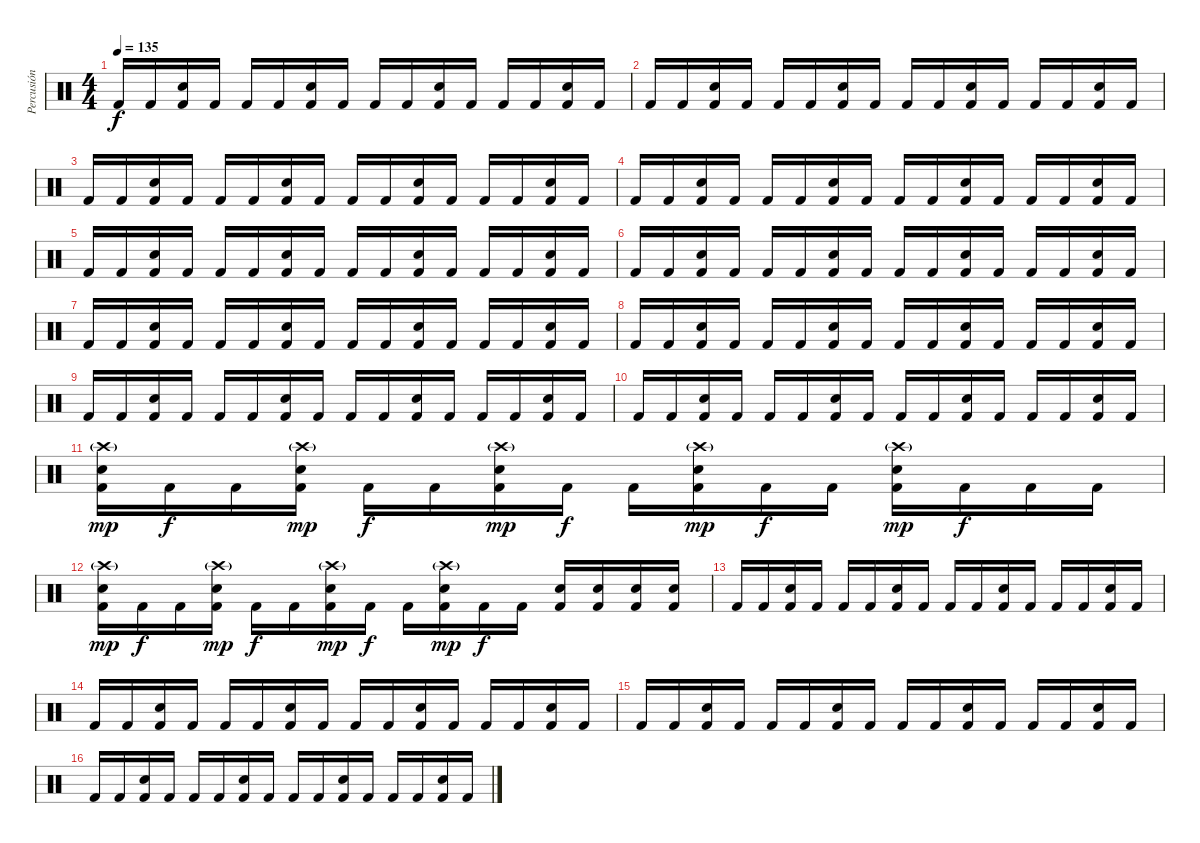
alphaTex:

\track ("Percusión" "Percusión") {instrument percussion}
\staff {score}
\articulation defaults
\ts (4 4)
\tempo 135
\clef neutral
\ks c "Kick (hit) 2".16{dy f} "Kick (hit) 2".16
("Snare (hit) 2" "Kick (hit) 2").16 "Kick (hit) 2".16 "Kick (hit) 2".16 "Kick (hit) 2".16 ("Snare (hit) 2" "Kick (hit) 2").16 "Kick (hit) 2".16 "Kick (hit) 2".16 "Kick (hit) 2".16 ("Snare (hit) 2" "Kick (hit) 2").16 "Kick (hit) 2".16 "Kick (hit) 2".16 "Kick (hit) 2".16 ("Snare (hit) 2" "Kick (hit) 2").16 "Kick (hit) 2".16 |
"Kick (hit) 2".16 "Kick (hit) 2".16 ("Snare (hit) 2" "Kick (hit) 2").16 "Kick (hit) 2".16 "Kick (hit) 2".16 "Kick (hit) 2".16 ("Snare (hit) 2" "Kick (hit) 2").16 "Kick (hit) 2".16 "Kick (hit) 2".16 "Kick (hit) 2".16 ("Snare (hit) 2" "Kick (hit) 2").16 "Kick (hit) 2".16 "Kick (hit) 2".16 "Kick (hit) 2".16 ("Snare (hit) 2" "Kick (hit) 2").16 "Kick (hit) 2".16 |
"Kick (hit) 2".16 "Kick (hit) 2".16 ("Snare (hit) 2" "Kick (hit) 2").16 "Kick (hit) 2".16 "Kick (hit) 2".16 "Kick (hit) 2".16 ("Snare (hit) 2" "Kick (hit) 2").16 "Kick (hit) 2".16 "Kick (hit) 2".16 "Kick (hit) 2".16 ("Snare (hit) 2" "Kick (hit) 2").16 "Kick (hit) 2".16 "Kick (hit) 2".16 "Kick (hit) 2".16 ("Snare (hit) 2" "Kick (hit) 2").16 "Kick (hit) 2".16 |
"Kick (hit) 2".16 "Kick (hit) 2".16 ("Snare (hit) 2" "Kick (hit) 2").16 "Kick (hit) 2".16 "Kick (hit) 2".16 "Kick (hit) 2".16 ("Snare (hit) 2" "Kick (hit) 2").16 "Kick (hit) 2".16 "Kick (hit) 2".16 "Kick (hit) 2".16 ("Snare (hit) 2" "Kick (hit) 2").16 "Kick (hit) 2".16 "Kick (hit) 2".16 "Kick (hit) 2".16 ("Snare (hit) 2" "Kick (hit) 2").16 "Kick (hit) 2".16 |
"Kick (hit) 2".16 "Kick (hit) 2".16 ("Snare (hit) 2" "Kick (hit) 2").16 "Kick (hit) 2".16 "Kick (hit) 2".16 "Kick (hit) 2".16 ("Snare (hit) 2" "Kick (hit) 2").16 "Kick (hit) 2".16 "Kick (hit) 2".16 "Kick (hit) 2".16 ("Snare (hit) 2" "Kick (hit) 2").16 "Kick (hit) 2".16 "Kick (hit) 2".16 "Kick (hit) 2".16 ("Snare (hit) 2" "Kick (hit) 2").16 "Kick (hit) 2".16 |
"Kick (hit) 2".16 "Kick (hit) 2".16 ("Snare (hit) 2" "Kick (hit) 2").16 "Kick (hit) 2".16 "Kick (hit) 2".16 "Kick (hit) 2".16 ("Snare (hit) 2" "Kick (hit) 2").16 "Kick (hit) 2".16 "Kick (hit) 2".16 "Kick (hit) 2".16 ("Snare (hit) 2" "Kick (hit) 2").16 "Kick (hit) 2".16 "Kick (hit) 2".16 "Kick (hit) 2".16 ("Snare (hit) 2" "Kick (hit) 2").16 "Kick (hit) 2".16 |
"Kick (hit) 2".16 "Kick (hit) 2".16 ("Snare (hit) 2" "Kick (hit) 2").16 "Kick (hit) 2".16 "Kick (hit) 2".16 "Kick (hit) 2".16 ("Snare (hit) 2" "Kick (hit) 2").16 "Kick (hit) 2".16 "Kick (hit) 2".16 "Kick (hit) 2".16 ("Snare (hit) 2" "Kick (hit) 2").16 "Kick (hit) 2".16 "Kick (hit) 2".16 "Kick (hit) 2".16 ("Snare (hit) 2" "Kick (hit) 2").16 "Kick (hit) 2".16 |
"Kick (hit) 2".16 "Kick (hit) 2".16 ("Snare (hit) 2" "Kick (hit) 2").16 "Kick (hit) 2".16 "Kick (hit) 2".16 "Kick (hit) 2".16 ("Snare (hit) 2" "Kick (hit) 2").16 "Kick (hit) 2".16 "Kick (hit) 2".16 "Kick (hit) 2".16 ("Snare (hit) 2" "Kick (hit) 2").16 "Kick (hit) 2".16 "Kick (hit) 2".16 "Kick (hit) 2".16 ("Snare (hit) 2" "Kick (hit) 2").16 "Kick (hit) 2".16 |
"Kick (hit) 2".16 "Kick (hit) 2".16 ("Snare (hit) 2" "Kick (hit) 2").16 "Kick (hit) 2".16 "Kick (hit) 2".16 "Kick (hit) 2".16 ("Snare (hit) 2" "Kick (hit) 2").16 "Kick (hit) 2".16 "Kick (hit) 2".16 "Kick (hit) 2".16 ("Snare (hit) 2" "Kick (hit) 2").16 "Kick (hit) 2".16 "Kick (hit) 2".16 "Kick (hit) 2".16 ("Snare (hit) 2" "Kick (hit) 2").16 "Kick (hit) 2".16 |
"Kick (hit) 2".16 "Kick (hit) 2".16 ("Snare (hit) 2" "Kick (hit) 2").16 "Kick (hit) 2".16 "Kick (hit) 2".16 "Kick (hit) 2".16 ("Snare (hit) 2" "Kick (hit) 2").16 "Kick (hit) 2".16 "Kick (hit) 2".16 "Kick (hit) 2".16 ("Snare (hit) 2" "Kick (hit) 2").16 "Kick (hit) 2".16 "Kick (hit) 2".16 "Kick (hit) 2".16 ("Snare (hit) 2" "Kick (hit) 2").16 "Kick (hit) 2".16 |
("Crash high (hit)"{g} "Snare (hit) 2" "Kick (hit) 2").16{dy mp} "Kick (hit) 2".16{dy f} "Kick (hit) 2".16 ("Crash high (hit)"{g} "Snare (hit) 2" "Kick (hit) 2").16{dy mp} "Kick (hit) 2".16{dy f} "Kick (hit) 2".16 ("Crash high (hit)"{g} "Snare (hit) 2" "Kick (hit) 2").16{dy mp} "Kick (hit) 2".16{dy f} "Kick (hit) 2".16 ("Crash high (hit)"{g} "Snare (hit) 2" "Kick (hit) 2").16{dy mp} "Kick (hit) 2".16{dy f} "Kick (hit) 2".16 ("Crash high (hit)"{g} "Snare (hit) 2" "Kick (hit) 2").16{dy mp} "Kick (hit) 2".16{dy f} "Kick (hit) 2".16 "Kick (hit) 2".16 |
("Crash high (hit)"{g} "Snare (hit) 2" "Kick (hit) 2").16{dy mp} "Kick (hit) 2".16{dy f} "Kick (hit) 2".16 ("Crash high (hit)"{g} "Snare (hit) 2" "Kick (hit) 2").16{dy mp} "Kick (hit) 2".16{dy f} "Kick (hit) 2".16 ("Crash high (hit)"{g} "Snare (hit) 2" "Kick (hit) 2").16{dy mp} "Kick (hit) 2".16{dy f} "Kick (hit) 2".16 ("Crash high (hit)"{g} "Snare (hit) 2" "Kick (hit) 2").16{dy mp} "Kick (hit) 2".16{dy f} "Kick (hit) 2".16 ("Snare (hit) 2" "Kick (hit) 2").16 ("Snare (hit) 2" "Kick (hit) 2").16 ("Snare (hit) 2" "Kick (hit) 2").16 ("Snare (hit) 2" "Kick (hit) 2").16 |
"Kick (hit) 2".16 "Kick (hit) 2".16 ("Snare (hit) 2" "Kick (hit) 2").16 "Kick (hit) 2".16 "Kick (hit) 2".16 "Kick (hit) 2".16 ("Snare (hit) 2" "Kick (hit) 2").16 "Kick (hit) 2".16 "Kick (hit) 2".16 "Kick (hit) 2".16 ("Snare (hit) 2" "Kick (hit) 2").16 "Kick (hit) 2".16 "Kick (hit) 2".16 "Kick (hit) 2".16 ("Snare (hit) 2" "Kick (hit) 2").16 "Kick (hit) 2".16 |
"Kick (hit) 2".16 "Kick (hit) 2".16 ("Snare (hit) 2" "Kick (hit) 2").16 "Kick (hit) 2".16 "Kick (hit) 2".16 "Kick (hit) 2".16 ("Snare (hit) 2" "Kick (hit) 2").16 "Kick (hit) 2".16 "Kick (hit) 2".16 "Kick (hit) 2".16 ("Snare (hit) 2" "Kick (hit) 2").16 "Kick (hit) 2".16 "Kick (hit) 2".16 "Kick (hit) 2".16 ("Snare (hit) 2" "Kick (hit) 2").16 "Kick (hit) 2".16 |
"Kick (hit) 2".16 "Kick (hit) 2".16 ("Snare (hit) 2" "Kick (hit) 2").16 "Kick (hit) 2".16 "Kick (hit) 2".16 "Kick (hit) 2".16 ("Snare (hit) 2" "Kick (hit) 2").16 "Kick (hit) 2".16 "Kick (hit) 2".16 "Kick (hit) 2".16 ("Snare (hit) 2" "Kick (hit) 2").16 "Kick (hit) 2".16 "Kick (hit) 2".16 "Kick (hit) 2".16 ("Snare (hit) 2" "Kick (hit) 2").16 "Kick (hit) 2".16 |
"Kick (hit) 2".16 "Kick (hit) 2".16 ("Snare (hit) 2" "Kick (hit) 2").16 "Kick (hit) 2".16 "Kick (hit) 2".16 "Kick (hit) 2".16 ("Snare (hit) 2" "Kick (hit) 2").16 "Kick (hit) 2".16 "Kick (hit) 2".16 "Kick (hit) 2".16 ("Snare (hit) 2" "Kick (hit) 2").16 "Kick (hit) 2".16 "Kick (hit) 2".16 "Kick (hit) 2".16 ("Snare (hit) 2" "Kick (hit) 2").16 "Kick (hit) 2".16
